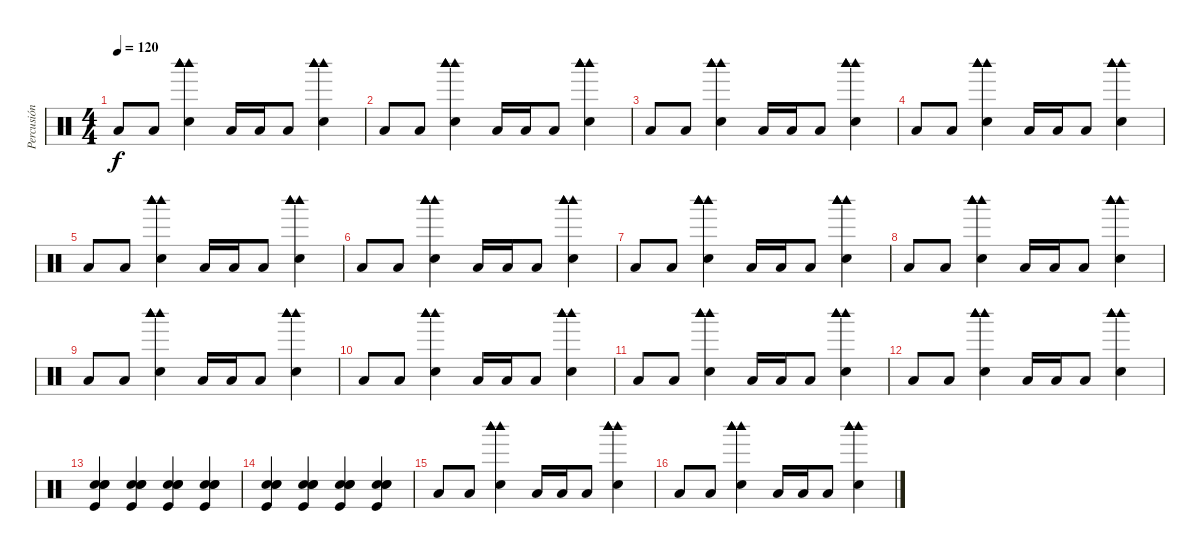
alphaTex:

\track ("Percusión" "Percusión") {instrument percussion}
\staff {score}
\articulation defaults
\ts (4 4)
\tempo 120
\clef neutral
\ks c "Low Tom (hit)".8{dy f} "Low Tom (hit)".8
("Woodblock high (hit)" "Woodblock high (hit)" "Woodblock high (hit)" "Woodblock high (hit)" "Snare (hit) 2").4 "Low Tom (hit)".16 "Low Tom (hit)".16 "Low Tom (hit)".8 ("Woodblock high (hit)" "Woodblock high (hit)" "Woodblock high (hit)" "Woodblock high (hit)" "Snare (hit) 2").4 |
"Low Tom (hit)".8 "Low Tom (hit)".8 ("Woodblock high (hit)" "Woodblock high (hit)" "Woodblock high (hit)" "Woodblock high (hit)" "Snare (hit) 2").4 "Low Tom (hit)".16 "Low Tom (hit)".16 "Low Tom (hit)".8 ("Woodblock high (hit)" "Woodblock high (hit)" "Woodblock high (hit)" "Woodblock high (hit)" "Snare (hit) 2").4 |
"Low Tom (hit)".8 "Low Tom (hit)".8 ("Woodblock high (hit)" "Woodblock high (hit)" "Woodblock high (hit)" "Woodblock high (hit)" "Snare (hit) 2").4 "Low Tom (hit)".16 "Low Tom (hit)".16 "Low Tom (hit)".8 ("Woodblock high (hit)" "Woodblock high (hit)" "Woodblock high (hit)" "Woodblock high (hit)" "Snare (hit) 2").4 |
"Low Tom (hit)".8 "Low Tom (hit)".8 ("Woodblock high (hit)" "Woodblock high (hit)" "Woodblock high (hit)" "Woodblock high (hit)" "Snare (hit) 2").4 "Low Tom (hit)".16 "Low Tom (hit)".16 "Low Tom (hit)".8 ("Woodblock high (hit)" "Woodblock high (hit)" "Woodblock high (hit)" "Woodblock high (hit)" "Snare (hit) 2").4 |
"Low Tom (hit)".8 "Low Tom (hit)".8 ("Woodblock high (hit)" "Woodblock high (hit)" "Woodblock high (hit)" "Woodblock high (hit)" "Snare (hit) 2").4 "Low Tom (hit)".16 "Low Tom (hit)".16 "Low Tom (hit)".8 ("Woodblock high (hit)" "Woodblock high (hit)" "Woodblock high (hit)" "Woodblock high (hit)" "Snare (hit) 2").4 |
"Low Tom (hit)".8 "Low Tom (hit)".8 ("Woodblock high (hit)" "Woodblock high (hit)" "Woodblock high (hit)" "Woodblock high (hit)" "Snare (hit) 2").4 "Low Tom (hit)".16 "Low Tom (hit)".16 "Low Tom (hit)".8 ("Woodblock high (hit)" "Woodblock high (hit)" "Woodblock high (hit)" "Woodblock high (hit)" "Snare (hit) 2").4 |
"Low Tom (hit)".8 "Low Tom (hit)".8 ("Woodblock high (hit)" "Woodblock high (hit)" "Woodblock high (hit)" "Woodblock high (hit)" "Snare (hit) 2").4 "Low Tom (hit)".16 "Low Tom (hit)".16 "Low Tom (hit)".8 ("Woodblock high (hit)" "Woodblock high (hit)" "Woodblock high (hit)" "Woodblock high (hit)" "Snare (hit) 2").4 |
"Low Tom (hit)".8 "Low Tom (hit)".8 ("Woodblock high (hit)" "Woodblock high (hit)" "Woodblock high (hit)" "Woodblock high (hit)" "Snare (hit) 2").4 "Low Tom (hit)".16 "Low Tom (hit)".16 "Low Tom (hit)".8 ("Woodblock high (hit)" "Woodblock high (hit)" "Woodblock high (hit)" "Woodblock high (hit)" "Snare (hit) 2").4 |
"Low Tom (hit)".8 "Low Tom (hit)".8 ("Woodblock high (hit)" "Woodblock high (hit)" "Woodblock high (hit)" "Woodblock high (hit)" "Snare (hit) 2").4 "Low Tom (hit)".16 "Low Tom (hit)".16 "Low Tom (hit)".8 ("Woodblock high (hit)" "Woodblock high (hit)" "Woodblock high (hit)" "Woodblock high (hit)" "Snare (hit) 2").4 |
"Low Tom (hit)".8 "Low Tom (hit)".8 ("Woodblock high (hit)" "Woodblock high (hit)" "Woodblock high (hit)" "Woodblock high (hit)" "Snare (hit) 2").4 "Low Tom (hit)".16 "Low Tom (hit)".16 "Low Tom (hit)".8 ("Woodblock high (hit)" "Woodblock high (hit)" "Woodblock high (hit)" "Woodblock high (hit)" "Snare (hit) 2").4 |
"Low Tom (hit)".8 "Low Tom (hit)".8 ("Woodblock high (hit)" "Woodblock high (hit)" "Woodblock high (hit)" "Woodblock high (hit)" "Snare (hit) 2").4 "Low Tom (hit)".16 "Low Tom (hit)".16 "Low Tom (hit)".8 ("Woodblock high (hit)" "Woodblock high (hit)" "Woodblock high (hit)" "Woodblock high (hit)" "Snare (hit) 2").4 |
"Low Tom (hit)".8 "Low Tom (hit)".8 ("Woodblock high (hit)" "Woodblock high (hit)" "Woodblock high (hit)" "Woodblock high (hit)" "Snare (hit) 2").4 "Low Tom (hit)".16 "Low Tom (hit)".16 "Low Tom (hit)".8 ("Woodblock high (hit)" "Woodblock high (hit)" "Woodblock high (hit)" "Woodblock high (hit)" "Snare (hit) 2").4 |
("Snare (hit) 2" "Snare (hit) 2" "Snare (hit) 2" "Kick (hit)").4 ("Snare (hit) 2" "Snare (hit) 2" "Snare (hit) 2" "Kick (hit)").4 ("Snare (hit) 2" "Snare (hit) 2" "Snare (hit) 2" "Kick (hit)").4 ("Snare (hit) 2" "Snare (hit) 2" "Snare (hit) 2" "Kick (hit)").4 |
("Snare (hit) 2" "Snare (hit) 2" "Snare (hit) 2" "Kick (hit)").4 ("Snare (hit) 2" "Snare (hit) 2" "Snare (hit) 2" "Kick (hit)").4 ("Snare (hit) 2" "Snare (hit) 2" "Snare (hit) 2" "Kick (hit)").4 ("Snare (hit) 2" "Snare (hit) 2" "Snare (hit) 2" "Kick (hit)").4 |
"Low Tom (hit)".8 "Low Tom (hit)".8 ("Woodblock high (hit)" "Woodblock high (hit)" "Woodblock high (hit)" "Woodblock high (hit)" "Snare (hit) 2").4 "Low Tom (hit)".16 "Low Tom (hit)".16 "Low Tom (hit)".8 ("Woodblock high (hit)" "Woodblock high (hit)" "Woodblock high (hit)" "Woodblock high (hit)" "Snare (hit) 2").4 |
"Low Tom (hit)".8 "Low Tom (hit)".8 ("Woodblock high (hit)" "Woodblock high (hit)" "Woodblock high (hit)" "Woodblock high (hit)" "Snare (hit) 2").4 "Low Tom (hit)".16 "Low Tom (hit)".16 "Low Tom (hit)".8 ("Woodblock high (hit)" "Woodblock high (hit)" "Woodblock high (hit)" "Woodblock high (hit)" "Snare (hit) 2").4
